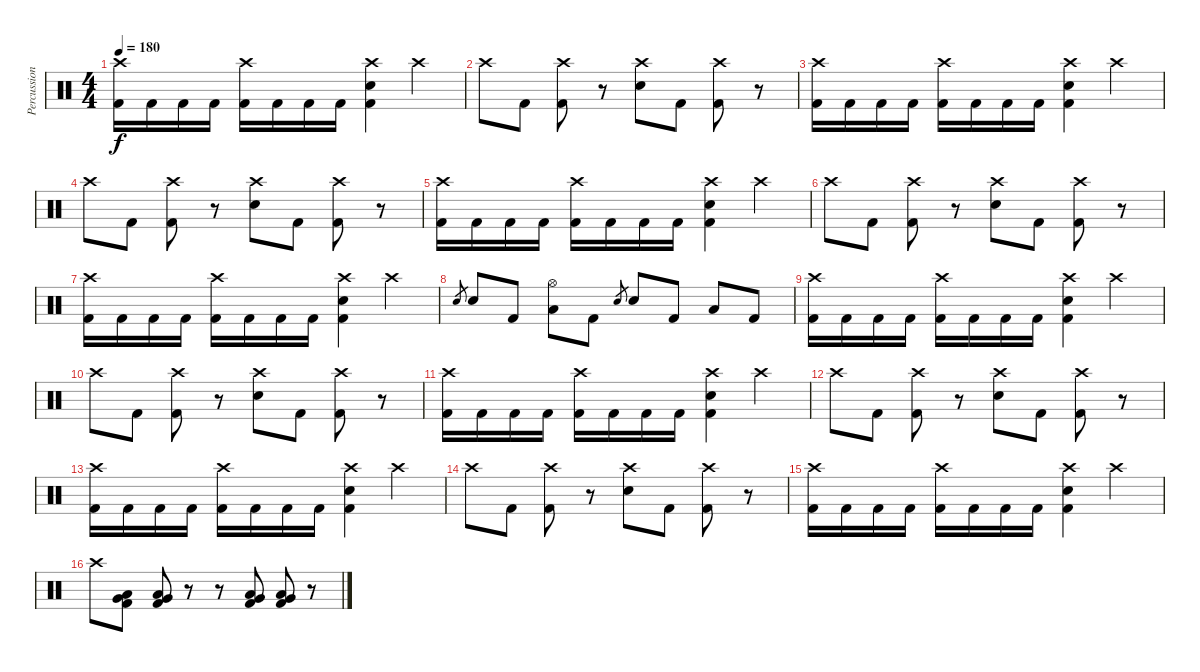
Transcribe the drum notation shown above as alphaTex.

\track ("Percussion" "Percussion") {instrument percussion}
\staff {score}
\articulation defaults
\ts (4 4)
\tempo 180
\clef neutral
\ks c
("Crash high (hit)" "Kick (hit) 2").16{dy f} "Kick (hit) 2".16 "Kick (hit) 2".16 "Kick (hit) 2".16 ("Crash high (hit)" "Kick (hit) 2").16 "Kick (hit) 2".16 "Kick (hit) 2".16 "Kick (hit) 2".16 ("Crash high (hit)" "Electric Snare (hit)" "Kick (hit) 2").4 "Crash high (hit)".4 |
"Crash high (hit)".8 "Kick (hit) 2".8 ("Crash high (hit)" "Kick (hit) 2").8 r.8 ("Crash high (hit)" "Electric Snare (hit)").8 "Kick (hit) 2".8 ("Crash high (hit)" "Kick (hit) 2").8 r.8 |
("Crash high (hit)" "Kick (hit) 2").16 "Kick (hit) 2".16 "Kick (hit) 2".16 "Kick (hit) 2".16 ("Crash high (hit)" "Kick (hit) 2").16 "Kick (hit) 2".16 "Kick (hit) 2".16 "Kick (hit) 2".16 ("Crash high (hit)" "Electric Snare (hit)" "Kick (hit) 2").4 "Crash high (hit)".4 |
"Crash high (hit)".8 "Kick (hit) 2".8 ("Crash high (hit)" "Kick (hit) 2").8 r.8 ("Crash high (hit)" "Electric Snare (hit)").8 "Kick (hit) 2".8 ("Crash high (hit)" "Kick (hit) 2").8 r.8 |
("Crash high (hit)" "Kick (hit) 2").16 "Kick (hit) 2".16 "Kick (hit) 2".16 "Kick (hit) 2".16 ("Crash high (hit)" "Kick (hit) 2").16 "Kick (hit) 2".16 "Kick (hit) 2".16 "Kick (hit) 2".16 ("Crash high (hit)" "Electric Snare (hit)" "Kick (hit) 2").4 "Crash high (hit)".4 |
"Crash high (hit)".8 "Kick (hit) 2".8 ("Crash high (hit)" "Kick (hit) 2").8 r.8 ("Crash high (hit)" "Electric Snare (hit)").8 "Kick (hit) 2".8 ("Crash high (hit)" "Kick (hit) 2").8 r.8 |
("Crash high (hit)" "Kick (hit) 2").16 "Kick (hit) 2".16 "Kick (hit) 2".16 "Kick (hit) 2".16 ("Crash high (hit)" "Kick (hit) 2").16 "Kick (hit) 2".16 "Kick (hit) 2".16 "Kick (hit) 2".16 ("Crash high (hit)" "Electric Snare (hit)" "Kick (hit) 2").4 "Crash high (hit)".4 |
"Electric Snare (hit)".8{gr} "Electric Snare (hit)".8 "Kick (hit) 2".8 ("Hi-Hat (open)" "Low Tom (hit)").8 "Kick (hit) 2".8 "Electric Snare (hit)".8{gr} "Electric Snare (hit)".8 "Kick (hit) 2".8 "Low Tom (hit)".8 "Kick (hit) 2".8 |
("Crash high (hit)" "Kick (hit) 2").16 "Kick (hit) 2".16 "Kick (hit) 2".16 "Kick (hit) 2".16 ("Crash high (hit)" "Kick (hit) 2").16 "Kick (hit) 2".16 "Kick (hit) 2".16 "Kick (hit) 2".16 ("Crash high (hit)" "Electric Snare (hit)" "Kick (hit) 2").4 "Crash high (hit)".4 |
"Crash high (hit)".8 "Kick (hit) 2".8 ("Crash high (hit)" "Kick (hit) 2").8 r.8 ("Crash high (hit)" "Electric Snare (hit)").8 "Kick (hit) 2".8 ("Crash high (hit)" "Kick (hit) 2").8 r.8 |
("Crash high (hit)" "Kick (hit) 2").16 "Kick (hit) 2".16 "Kick (hit) 2".16 "Kick (hit) 2".16 ("Crash high (hit)" "Kick (hit) 2").16 "Kick (hit) 2".16 "Kick (hit) 2".16 "Kick (hit) 2".16 ("Crash high (hit)" "Electric Snare (hit)" "Kick (hit) 2").4 "Crash high (hit)".4 |
"Crash high (hit)".8 "Kick (hit) 2".8 ("Crash high (hit)" "Kick (hit) 2").8 r.8 ("Crash high (hit)" "Electric Snare (hit)").8 "Kick (hit) 2".8 ("Crash high (hit)" "Kick (hit) 2").8 r.8 |
("Crash high (hit)" "Kick (hit) 2").16 "Kick (hit) 2".16 "Kick (hit) 2".16 "Kick (hit) 2".16 ("Crash high (hit)" "Kick (hit) 2").16 "Kick (hit) 2".16 "Kick (hit) 2".16 "Kick (hit) 2".16 ("Crash high (hit)" "Electric Snare (hit)" "Kick (hit) 2").4 "Crash high (hit)".4 |
"Crash high (hit)".8 "Kick (hit) 2".8 ("Crash high (hit)" "Kick (hit) 2").8 r.8 ("Crash high (hit)" "Electric Snare (hit)").8 "Kick (hit) 2".8 ("Crash high (hit)" "Kick (hit) 2").8 r.8 |
("Crash high (hit)" "Kick (hit) 2").16 "Kick (hit) 2".16 "Kick (hit) 2".16 "Kick (hit) 2".16 ("Crash high (hit)" "Kick (hit) 2").16 "Kick (hit) 2".16 "Kick (hit) 2".16 "Kick (hit) 2".16 ("Crash high (hit)" "Electric Snare (hit)" "Kick (hit) 2").4 "Crash high (hit)".4 |
"Crash high (hit)".8 ("Low Tom (hit)" "Very Low Tom (hit)" "Kick (hit) 2").8 ("Low Tom (hit)" "Very Low Tom (hit)" "Kick (hit) 2").8 r.8 r.8 ("Low Tom (hit)" "Very Low Tom (hit)" "Kick (hit) 2").8 ("Low Tom (hit)" "Very Low Tom (hit)" "Kick (hit) 2").8 r.8
